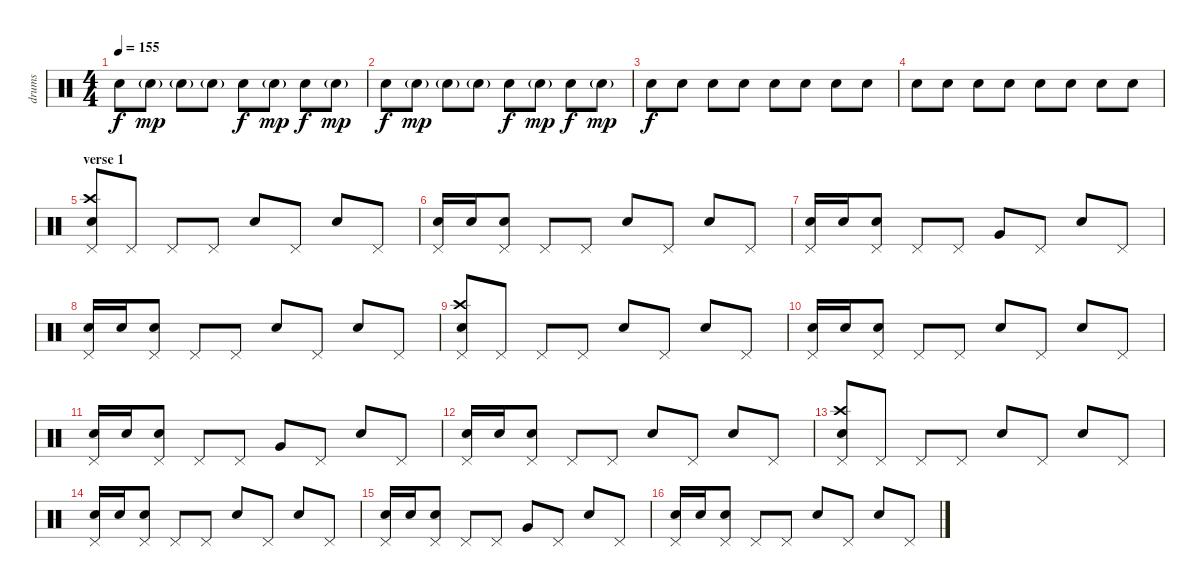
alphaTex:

\track ("drums" "drums") {instrument percussion}
\staff {score}
\articulation defaults
\ts (4 4)
\tempo 155
\clef neutral
\ks c "Electric Snare (hit)".8{dy f} "Electric Snare (hit)"{g}.8{dy mp} "Electric Snare (hit)"{g}.8 "Electric Snare (hit)"{g}.8 "Electric Snare (hit)".8{dy f} "Electric Snare (hit)"{g}.8{dy mp} "Electric Snare (hit)".8{dy f} "Electric Snare (hit)"{g}.8{dy mp}
|
"Electric Snare (hit)".8{dy f} "Electric Snare (hit)"{g}.8{dy mp} "Electric Snare (hit)"{g}.8 "Electric Snare (hit)"{g}.8 "Electric Snare (hit)".8{dy f} "Electric Snare (hit)"{g}.8{dy mp} "Electric Snare (hit)".8{dy f} "Electric Snare (hit)"{g}.8{dy mp} |
"Electric Snare (hit)".8{dy f volume 16} "Electric Snare (hit)".8 "Electric Snare (hit)".8 "Electric Snare (hit)".8 "Electric Snare (hit)".8 "Electric Snare (hit)".8 "Electric Snare (hit)".8 "Electric Snare (hit)".8 |
"Electric Snare (hit)".8 "Electric Snare (hit)".8 "Electric Snare (hit)".8 "Electric Snare (hit)".8 "Electric Snare (hit)".8 "Electric Snare (hit)".8 "Electric Snare (hit)".8 "Electric Snare (hit)".8 |
\section ("" "verse 1")
("Electric Snare (hit)" "Crash high (hit)" "Pedal Hi-Hat (hit)").8{volume 13} "Pedal Hi-Hat (hit)".8 "Pedal Hi-Hat (hit)".8 "Pedal Hi-Hat (hit)".8 "Electric Snare (hit)".8 "Pedal Hi-Hat (hit)".8 "Electric Snare (hit)".8 "Pedal Hi-Hat (hit)".8 |
("Electric Snare (hit)" "Pedal Hi-Hat (hit)").16 "Electric Snare (hit)".16 ("Electric Snare (hit)" "Pedal Hi-Hat (hit)").8 "Pedal Hi-Hat (hit)".8 "Pedal Hi-Hat (hit)".8 "Electric Snare (hit)".8 "Pedal Hi-Hat (hit)".8 "Electric Snare (hit)".8 "Pedal Hi-Hat (hit)".8 |
("Electric Snare (hit)" "Pedal Hi-Hat (hit)").16 "Electric Snare (hit)".16 ("Electric Snare (hit)" "Pedal Hi-Hat (hit)").8 "Pedal Hi-Hat (hit)".8 "Pedal Hi-Hat (hit)".8 "Very Low Tom (hit)".8 "Pedal Hi-Hat (hit)".8 "Electric Snare (hit)".8 "Pedal Hi-Hat (hit)".8 |
("Electric Snare (hit)" "Pedal Hi-Hat (hit)").16 "Electric Snare (hit)".16 ("Electric Snare (hit)" "Pedal Hi-Hat (hit)").8 "Pedal Hi-Hat (hit)".8 "Pedal Hi-Hat (hit)".8 "Electric Snare (hit)".8 "Pedal Hi-Hat (hit)".8 "Electric Snare (hit)".8 "Pedal Hi-Hat (hit)".8 |
("Electric Snare (hit)" "Crash high (hit)" "Pedal Hi-Hat (hit)").8 "Pedal Hi-Hat (hit)".8 "Pedal Hi-Hat (hit)".8 "Pedal Hi-Hat (hit)".8 "Electric Snare (hit)".8 "Pedal Hi-Hat (hit)".8 "Electric Snare (hit)".8 "Pedal Hi-Hat (hit)".8 |
("Electric Snare (hit)" "Pedal Hi-Hat (hit)").16 "Electric Snare (hit)".16 ("Electric Snare (hit)" "Pedal Hi-Hat (hit)").8 "Pedal Hi-Hat (hit)".8 "Pedal Hi-Hat (hit)".8 "Electric Snare (hit)".8 "Pedal Hi-Hat (hit)".8 "Electric Snare (hit)".8 "Pedal Hi-Hat (hit)".8 |
("Electric Snare (hit)" "Pedal Hi-Hat (hit)").16 "Electric Snare (hit)".16 ("Electric Snare (hit)" "Pedal Hi-Hat (hit)").8 "Pedal Hi-Hat (hit)".8 "Pedal Hi-Hat (hit)".8 "Very Low Tom (hit)".8 "Pedal Hi-Hat (hit)".8 "Electric Snare (hit)".8 "Pedal Hi-Hat (hit)".8 |
("Electric Snare (hit)" "Pedal Hi-Hat (hit)").16 "Electric Snare (hit)".16 ("Electric Snare (hit)" "Pedal Hi-Hat (hit)").8 "Pedal Hi-Hat (hit)".8 "Pedal Hi-Hat (hit)".8 "Electric Snare (hit)".8 "Pedal Hi-Hat (hit)".8 "Electric Snare (hit)".8 "Pedal Hi-Hat (hit)".8 |
("Electric Snare (hit)" "Crash high (hit)" "Pedal Hi-Hat (hit)").8 "Pedal Hi-Hat (hit)".8 "Pedal Hi-Hat (hit)".8 "Pedal Hi-Hat (hit)".8 "Electric Snare (hit)".8 "Pedal Hi-Hat (hit)".8 "Electric Snare (hit)".8 "Pedal Hi-Hat (hit)".8 |
("Electric Snare (hit)" "Pedal Hi-Hat (hit)").16 "Electric Snare (hit)".16 ("Electric Snare (hit)" "Pedal Hi-Hat (hit)").8 "Pedal Hi-Hat (hit)".8 "Pedal Hi-Hat (hit)".8 "Electric Snare (hit)".8 "Pedal Hi-Hat (hit)".8 "Electric Snare (hit)".8 "Pedal Hi-Hat (hit)".8 |
("Electric Snare (hit)" "Pedal Hi-Hat (hit)").16 "Electric Snare (hit)".16 ("Electric Snare (hit)" "Pedal Hi-Hat (hit)").8 "Pedal Hi-Hat (hit)".8 "Pedal Hi-Hat (hit)".8 "Very Low Tom (hit)".8 "Pedal Hi-Hat (hit)".8 "Electric Snare (hit)".8 "Pedal Hi-Hat (hit)".8 |
("Electric Snare (hit)" "Pedal Hi-Hat (hit)").16 "Electric Snare (hit)".16 ("Electric Snare (hit)" "Pedal Hi-Hat (hit)").8 "Pedal Hi-Hat (hit)".8 "Pedal Hi-Hat (hit)".8 "Electric Snare (hit)".8 "Pedal Hi-Hat (hit)".8 "Electric Snare (hit)".8 "Pedal Hi-Hat (hit)".8
